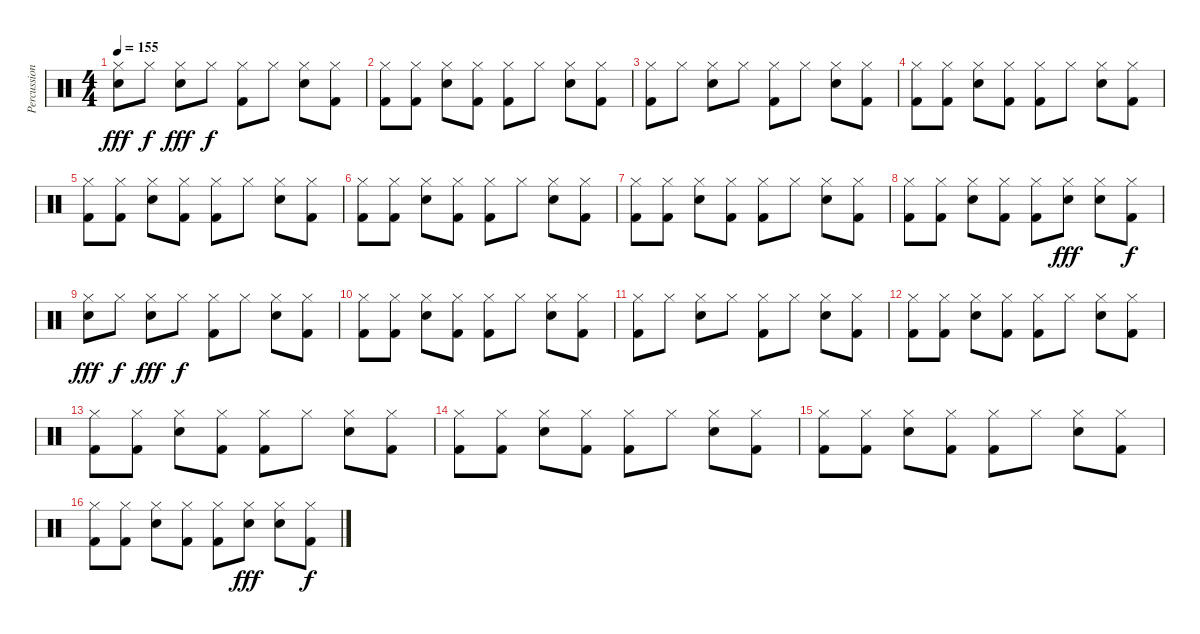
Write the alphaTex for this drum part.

\track ("Percussions" "Percussion") {instrument percussion}
\staff {score}
\articulation defaults
\ts (4 4)
\tempo 155
\clef neutral
\ks c
("Hi-Hat (closed)" "Electric Snare (hit)").8{dy fff} "Hi-Hat (closed)".8{dy f} ("Hi-Hat (closed)" "Electric Snare (hit)").8{dy fff} "Hi-Hat (closed)".8{dy f} ("Hi-Hat (closed)" "Kick (hit) 2").8 "Hi-Hat (closed)".8 ("Hi-Hat (closed)" "Electric Snare (hit)").8 ("Hi-Hat (closed)" "Kick (hit) 2").8 |
("Hi-Hat (closed)" "Kick (hit) 2").8 ("Hi-Hat (closed)" "Kick (hit) 2").8 ("Hi-Hat (closed)" "Electric Snare (hit)").8 ("Hi-Hat (closed)" "Kick (hit) 2").8 ("Hi-Hat (closed)" "Kick (hit) 2").8 "Hi-Hat (closed)".8 ("Hi-Hat (closed)" "Electric Snare (hit)").8 ("Hi-Hat (closed)" "Kick (hit) 2").8 |
("Hi-Hat (closed)" "Kick (hit) 2").8 "Hi-Hat (closed)".8 ("Hi-Hat (closed)" "Electric Snare (hit)").8 "Hi-Hat (closed)".8 ("Hi-Hat (closed)" "Kick (hit) 2").8 "Hi-Hat (closed)".8 ("Hi-Hat (closed)" "Electric Snare (hit)").8 ("Hi-Hat (closed)" "Kick (hit) 2").8 |
("Hi-Hat (closed)" "Kick (hit) 2").8 ("Hi-Hat (closed)" "Kick (hit) 2").8 ("Hi-Hat (closed)" "Electric Snare (hit)").8 ("Hi-Hat (closed)" "Kick (hit) 2").8 ("Hi-Hat (closed)" "Kick (hit) 2").8 "Hi-Hat (closed)".8 ("Hi-Hat (closed)" "Electric Snare (hit)").8 ("Hi-Hat (closed)" "Kick (hit) 2").8 |
("Hi-Hat (closed)" "Kick (hit) 2").8 ("Hi-Hat (closed)" "Kick (hit) 2").8 ("Hi-Hat (closed)" "Electric Snare (hit)").8 ("Hi-Hat (closed)" "Kick (hit) 2").8 ("Hi-Hat (closed)" "Kick (hit) 2").8 "Hi-Hat (closed)".8 ("Hi-Hat (closed)" "Electric Snare (hit)").8 ("Hi-Hat (closed)" "Kick (hit) 2").8 |
("Hi-Hat (closed)" "Kick (hit) 2").8 ("Hi-Hat (closed)" "Kick (hit) 2").8 ("Hi-Hat (closed)" "Electric Snare (hit)").8 ("Hi-Hat (closed)" "Kick (hit) 2").8 ("Hi-Hat (closed)" "Kick (hit) 2").8 "Hi-Hat (closed)".8 ("Hi-Hat (closed)" "Electric Snare (hit)").8 ("Hi-Hat (closed)" "Kick (hit) 2").8 |
("Hi-Hat (closed)" "Kick (hit) 2").8 ("Hi-Hat (closed)" "Kick (hit) 2").8 ("Hi-Hat (closed)" "Electric Snare (hit)").8 ("Hi-Hat (closed)" "Kick (hit) 2").8 ("Hi-Hat (closed)" "Kick (hit) 2").8 "Hi-Hat (closed)".8 ("Hi-Hat (closed)" "Electric Snare (hit)").8 ("Hi-Hat (closed)" "Kick (hit) 2").8 |
("Hi-Hat (closed)" "Kick (hit) 2").8 ("Hi-Hat (closed)" "Kick (hit) 2").8 ("Hi-Hat (closed)" "Electric Snare (hit)").8 ("Hi-Hat (closed)" "Kick (hit) 2").8 ("Hi-Hat (closed)" "Kick (hit) 2").8 ("Hi-Hat (closed)" "Electric Snare (hit)").8{dy fff} ("Hi-Hat (closed)" "Electric Snare (hit)").8 ("Hi-Hat (closed)" "Kick (hit) 2").8{dy f} |
("Hi-Hat (closed)" "Electric Snare (hit)").8{dy fff} "Hi-Hat (closed)".8{dy f} ("Hi-Hat (closed)" "Electric Snare (hit)").8{dy fff} "Hi-Hat (closed)".8{dy f} ("Hi-Hat (closed)" "Kick (hit) 2").8 "Hi-Hat (closed)".8 ("Hi-Hat (closed)" "Electric Snare (hit)").8 ("Hi-Hat (closed)" "Kick (hit) 2").8 |
("Hi-Hat (closed)" "Kick (hit) 2").8 ("Hi-Hat (closed)" "Kick (hit) 2").8 ("Hi-Hat (closed)" "Electric Snare (hit)").8 ("Hi-Hat (closed)" "Kick (hit) 2").8 ("Hi-Hat (closed)" "Kick (hit) 2").8 "Hi-Hat (closed)".8 ("Hi-Hat (closed)" "Electric Snare (hit)").8 ("Hi-Hat (closed)" "Kick (hit) 2").8 |
("Hi-Hat (closed)" "Kick (hit) 2").8 "Hi-Hat (closed)".8 ("Hi-Hat (closed)" "Electric Snare (hit)").8 "Hi-Hat (closed)".8 ("Hi-Hat (closed)" "Kick (hit) 2").8 "Hi-Hat (closed)".8 ("Hi-Hat (closed)" "Electric Snare (hit)").8 ("Hi-Hat (closed)" "Kick (hit) 2").8 |
("Hi-Hat (closed)" "Kick (hit) 2").8 ("Hi-Hat (closed)" "Kick (hit) 2").8 ("Hi-Hat (closed)" "Electric Snare (hit)").8 ("Hi-Hat (closed)" "Kick (hit) 2").8 ("Hi-Hat (closed)" "Kick (hit) 2").8 "Hi-Hat (closed)".8 ("Hi-Hat (closed)" "Electric Snare (hit)").8 ("Hi-Hat (closed)" "Kick (hit) 2").8 |
("Hi-Hat (closed)" "Kick (hit) 2").8 ("Hi-Hat (closed)" "Kick (hit) 2").8 ("Hi-Hat (closed)" "Electric Snare (hit)").8 ("Hi-Hat (closed)" "Kick (hit) 2").8 ("Hi-Hat (closed)" "Kick (hit) 2").8 "Hi-Hat (closed)".8 ("Hi-Hat (closed)" "Electric Snare (hit)").8 ("Hi-Hat (closed)" "Kick (hit) 2").8 |
("Hi-Hat (closed)" "Kick (hit) 2").8 ("Hi-Hat (closed)" "Kick (hit) 2").8 ("Hi-Hat (closed)" "Electric Snare (hit)").8 ("Hi-Hat (closed)" "Kick (hit) 2").8 ("Hi-Hat (closed)" "Kick (hit) 2").8 "Hi-Hat (closed)".8 ("Hi-Hat (closed)" "Electric Snare (hit)").8 ("Hi-Hat (closed)" "Kick (hit) 2").8 |
("Hi-Hat (closed)" "Kick (hit) 2").8 ("Hi-Hat (closed)" "Kick (hit) 2").8 ("Hi-Hat (closed)" "Electric Snare (hit)").8 ("Hi-Hat (closed)" "Kick (hit) 2").8 ("Hi-Hat (closed)" "Kick (hit) 2").8 "Hi-Hat (closed)".8 ("Hi-Hat (closed)" "Electric Snare (hit)").8 ("Hi-Hat (closed)" "Kick (hit) 2").8 |
("Hi-Hat (closed)" "Kick (hit) 2").8 ("Hi-Hat (closed)" "Kick (hit) 2").8 ("Hi-Hat (closed)" "Electric Snare (hit)").8 ("Hi-Hat (closed)" "Kick (hit) 2").8 ("Hi-Hat (closed)" "Kick (hit) 2").8 ("Hi-Hat (closed)" "Electric Snare (hit)").8{dy fff} ("Hi-Hat (closed)" "Electric Snare (hit)").8 ("Hi-Hat (closed)" "Kick (hit) 2").8{dy f}
